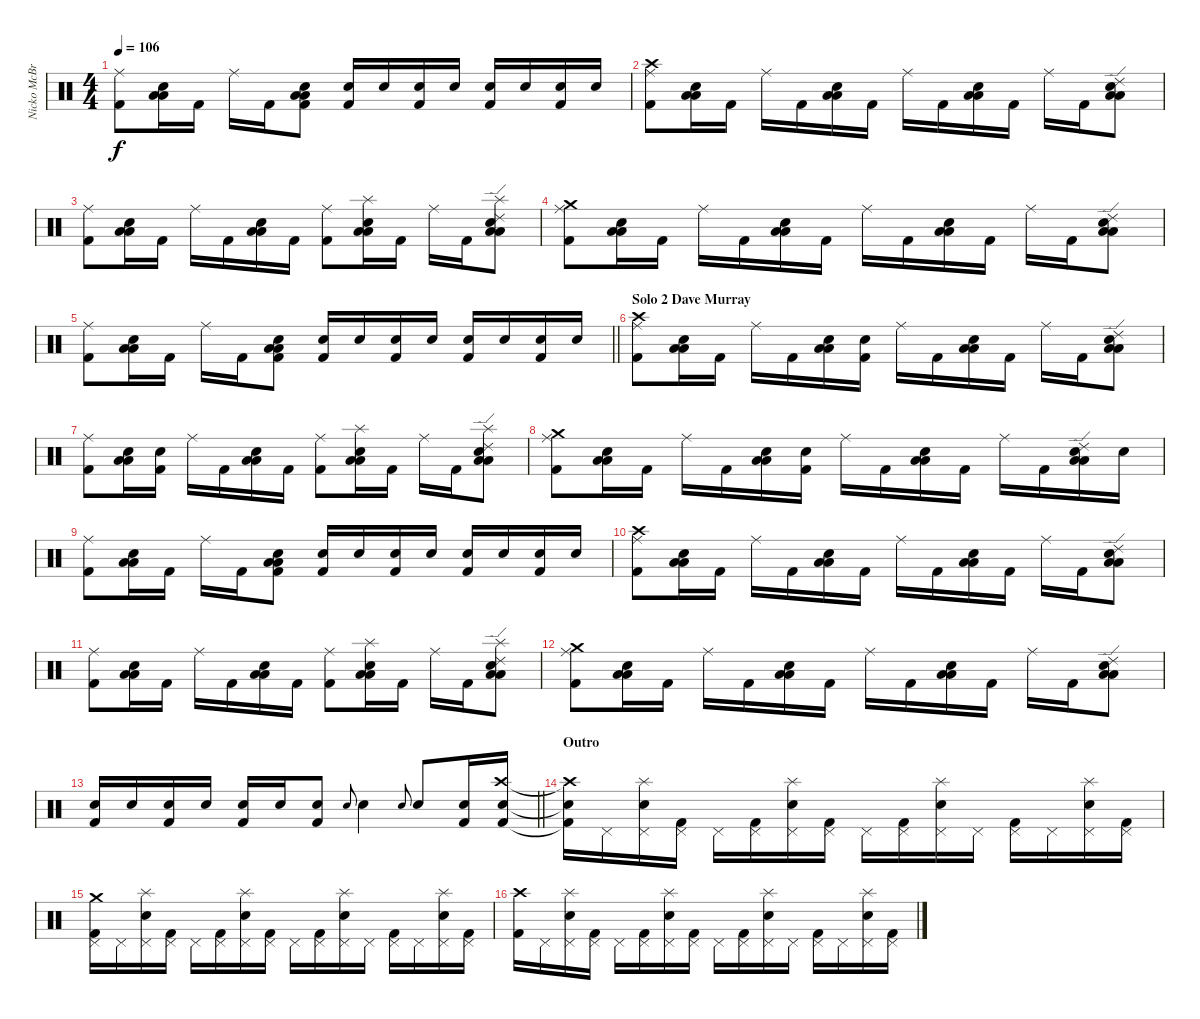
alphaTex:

\track ("Nicko McBrain" "Nicko McBr") {instrument percussion}
\staff {score}
\articulation defaults
\ts (4 4)
\tempo 106
\clef neutral
\ks c
("Ride (middle)" "Kick (hit) 2").8{dy f} ("Electric Snare (hit)" "Low Tom (hit)" "Low Floor Tom (hit)").16 "Kick (hit) 2".16 "Ride (middle)".16 "Kick (hit) 2".16 ("Electric Snare (hit)" "Low Tom (hit)" "Low Floor Tom (hit)" "Kick (hit) 2").8 ("Electric Snare (hit)" "Kick (hit) 2").16 "Electric Snare (hit)".16 ("Electric Snare (hit)" "Kick (hit) 2").16 "Electric Snare (hit)".16 ("Electric Snare (hit)" "Kick (hit) 2").16 "Electric Snare (hit)".16 ("Electric Snare (hit)" "Kick (hit) 2").16 "Electric Snare (hit)".16 |
("Ride (middle)" "Crash high (hit)" "Kick (hit) 2").8 ("Electric Snare (hit)" "Low Tom (hit)" "Low Floor Tom (hit)").16 "Kick (hit) 2".16 "Ride (middle)".16 "Kick (hit) 2".16 ("Electric Snare (hit)" "Low Tom (hit)" "Low Floor Tom (hit)").16 "Kick (hit) 2".16 "Ride (middle)".16 "Kick (hit) 2".16 ("Electric Snare (hit)" "Low Tom (hit)" "Low Floor Tom (hit)").16 "Kick (hit) 2".16 "Ride (middle)".16 "Kick (hit) 2".16 ("Ride (edge) 2" "Electric Snare (hit)" "Low Tom (hit)" "Low Floor Tom (hit)").8 |
("Ride (middle)" "Kick (hit) 2").8 ("Electric Snare (hit)" "Low Tom (hit)" "Low Floor Tom (hit)").16 "Kick (hit) 2".16 "Ride (middle)".16 "Kick (hit) 2".16 ("Electric Snare (hit)" "Low Tom (hit)" "Low Floor Tom (hit)").16 "Kick (hit) 2".16 ("Ride (middle)" "Kick (hit) 2").8 ("Electric Snare (hit)" "Low Tom (hit)" "Low Floor Tom (hit)" "Splash (hit)").16 "Kick (hit) 2".16 "Ride (middle)".16 "Kick (hit) 2".16 ("Ride (edge) 2" "Electric Snare (hit)" "Low Tom (hit)" "Low Floor Tom (hit)" "Splash (hit)").8 |
("Ride (middle)" "Crash medium (hit)" "Kick (hit) 2").8 ("Electric Snare (hit)" "Low Tom (hit)" "Low Floor Tom (hit)").16 "Kick (hit) 2".16 "Ride (middle)".16 "Kick (hit) 2".16 ("Electric Snare (hit)" "Low Tom (hit)" "Low Floor Tom (hit)").16 "Kick (hit) 2".16 "Ride (middle)".16 "Kick (hit) 2".16 ("Electric Snare (hit)" "Low Tom (hit)" "Low Floor Tom (hit)").16 "Kick (hit) 2".16 "Ride (middle)".16 "Kick (hit) 2".16 ("Ride (edge) 2" "Electric Snare (hit)" "Low Tom (hit)" "Low Floor Tom (hit)").8 |
\barLineRight lightlight
("Ride (middle)" "Kick (hit) 2").8 ("Electric Snare (hit)" "Low Tom (hit)" "Low Floor Tom (hit)").16 "Kick (hit) 2".16 "Ride (middle)".16 "Kick (hit) 2".16 ("Electric Snare (hit)" "Low Tom (hit)" "Low Floor Tom (hit)" "Kick (hit) 2").8 ("Electric Snare (hit)" "Kick (hit) 2").16 "Electric Snare (hit)".16 ("Electric Snare (hit)" "Kick (hit) 2").16 "Electric Snare (hit)".16 ("Electric Snare (hit)" "Kick (hit) 2").16 "Electric Snare (hit)".16 ("Electric Snare (hit)" "Kick (hit) 2").16 "Electric Snare (hit)".16 |
\section ("" "Solo 2 Dave Murray")
("Ride (middle)" "Crash high (hit)" "Kick (hit) 2").8 ("Electric Snare (hit)" "Low Tom (hit)" "Low Floor Tom (hit)").16 "Kick (hit) 2".16 "Ride (middle)".16 "Kick (hit) 2".16 ("Electric Snare (hit)" "Low Tom (hit)" "Low Floor Tom (hit)").16 ("Electric Snare (hit)" "Kick (hit) 2").16 "Ride (middle)".16 "Kick (hit) 2".16 ("Electric Snare (hit)" "Low Tom (hit)" "Low Floor Tom (hit)").16 "Kick (hit) 2".16 "Ride (middle)".16 "Kick (hit) 2".16 ("Ride (edge) 2" "Electric Snare (hit)" "Low Tom (hit)" "Low Floor Tom (hit)").8 |
("Ride (middle)" "Kick (hit) 2").8 ("Electric Snare (hit)" "Low Tom (hit)" "Low Floor Tom (hit)").16 ("Electric Snare (hit)" "Kick (hit) 2").16 "Ride (middle)".16 "Kick (hit) 2".16 ("Electric Snare (hit)" "Low Tom (hit)" "Low Floor Tom (hit)").16 "Kick (hit) 2".16 ("Ride (middle)" "Kick (hit) 2").8 ("Electric Snare (hit)" "Low Tom (hit)" "Low Floor Tom (hit)" "Splash (hit)").16 "Kick (hit) 2".16 "Ride (middle)".16 "Kick (hit) 2".16 ("Ride (edge) 2" "Electric Snare (hit)" "Low Tom (hit)" "Low Floor Tom (hit)" "Splash (hit)").8 |
("Ride (middle)" "Crash medium (hit)" "Kick (hit) 2").8 ("Electric Snare (hit)" "Low Tom (hit)" "Low Floor Tom (hit)").16 "Kick (hit) 2".16 "Ride (middle)".16 "Kick (hit) 2".16 ("Electric Snare (hit)" "Low Tom (hit)" "Low Floor Tom (hit)").16 ("Electric Snare (hit)" "Kick (hit) 2").16 "Ride (middle)".16 "Kick (hit) 2".16 ("Electric Snare (hit)" "Low Tom (hit)" "Low Floor Tom (hit)").16 "Kick (hit) 2".16 "Ride (middle)".16 "Kick (hit) 2".16 ("Ride (edge) 2" "Electric Snare (hit)" "Low Tom (hit)" "Low Floor Tom (hit)").16 "Electric Snare (hit)".16 |
("Ride (middle)" "Kick (hit) 2").8 ("Electric Snare (hit)" "Low Tom (hit)" "Low Floor Tom (hit)").16 "Kick (hit) 2".16 "Ride (middle)".16 "Kick (hit) 2".16 ("Electric Snare (hit)" "Low Tom (hit)" "Low Floor Tom (hit)" "Kick (hit) 2").8 ("Electric Snare (hit)" "Kick (hit) 2").16 "Electric Snare (hit)".16 ("Electric Snare (hit)" "Kick (hit) 2").16 "Electric Snare (hit)".16 ("Electric Snare (hit)" "Kick (hit) 2").16 "Electric Snare (hit)".16 ("Electric Snare (hit)" "Kick (hit) 2").16 "Electric Snare (hit)".16 |
("Ride (middle)" "Crash high (hit)" "Kick (hit) 2").8 ("Electric Snare (hit)" "Low Tom (hit)" "Low Floor Tom (hit)").16 "Kick (hit) 2".16 "Ride (middle)".16 "Kick (hit) 2".16 ("Electric Snare (hit)" "Low Tom (hit)" "Low Floor Tom (hit)").16 "Kick (hit) 2".16 "Ride (middle)".16 "Kick (hit) 2".16 ("Electric Snare (hit)" "Low Tom (hit)" "Low Floor Tom (hit)").16 "Kick (hit) 2".16 "Ride (middle)".16 "Kick (hit) 2".16 ("Ride (edge) 2" "Electric Snare (hit)" "Low Tom (hit)" "Low Floor Tom (hit)").8 |
("Ride (middle)" "Kick (hit) 2").8 ("Electric Snare (hit)" "Low Tom (hit)" "Low Floor Tom (hit)").16 "Kick (hit) 2".16 "Ride (middle)".16 "Kick (hit) 2".16 ("Electric Snare (hit)" "Low Tom (hit)" "Low Floor Tom (hit)").16 "Kick (hit) 2".16 ("Ride (middle)" "Kick (hit) 2").8 ("Electric Snare (hit)" "Low Tom (hit)" "Low Floor Tom (hit)" "Splash (hit)").16 "Kick (hit) 2".16 "Ride (middle)".16 "Kick (hit) 2".16 ("Ride (edge) 2" "Electric Snare (hit)" "Low Tom (hit)" "Low Floor Tom (hit)" "Splash (hit)").8 |
("Ride (middle)" "Crash medium (hit)" "Kick (hit) 2").8 ("Electric Snare (hit)" "Low Tom (hit)" "Low Floor Tom (hit)").16 "Kick (hit) 2".16 "Ride (middle)".16 "Kick (hit) 2".16 ("Electric Snare (hit)" "Low Tom (hit)" "Low Floor Tom (hit)").16 "Kick (hit) 2".16 "Ride (middle)".16 "Kick (hit) 2".16 ("Electric Snare (hit)" "Low Tom (hit)" "Low Floor Tom (hit)").16 "Kick (hit) 2".16 "Ride (middle)".16 "Kick (hit) 2".16 ("Ride (edge) 2" "Electric Snare (hit)" "Low Tom (hit)" "Low Floor Tom (hit)").8 |
\barLineRight lightlight
("Electric Snare (hit)" "Kick (hit) 2").16 "Electric Snare (hit)".16 ("Electric Snare (hit)" "Kick (hit) 2").16 "Electric Snare (hit)".16 ("Electric Snare (hit)" "Kick (hit) 2").16 "Electric Snare (hit)".16 ("Electric Snare (hit)" "Kick (hit) 2").8 "Electric Snare (hit)".8{gr onbeat} "Electric Snare (hit)".4 "Electric Snare (hit)".8{gr onbeat} "Electric Snare (hit)".8 ("Electric Snare (hit)" "Kick (hit) 2").16 ("Snare (hit) 2" "Crash high (hit)" "Kick (hit) 2").16 |
\section ("" "Outro")
("Snare (hit) 2"{t} "Crash high (hit)"{t} "Kick (hit) 2"{t}).16 "Pedal Hi-Hat (hit)".16 ("Pedal Hi-Hat (hit)" "Snare (hit) 2" "Splash (hit)").16 ("Pedal Hi-Hat (hit)" "Kick (hit) 2").16 "Pedal Hi-Hat (hit)".16 ("Pedal Hi-Hat (hit)" "Kick (hit) 2").16 ("Pedal Hi-Hat (hit)" "Snare (hit) 2" "Splash (hit)").16 ("Pedal Hi-Hat (hit)" "Kick (hit) 2").16 "Pedal Hi-Hat (hit)".16 ("Pedal Hi-Hat (hit)" "Kick (hit) 2").16 ("Pedal Hi-Hat (hit)" "Snare (hit) 2" "Splash (hit)").16 "Pedal Hi-Hat (hit)".16 ("Pedal Hi-Hat (hit)" "Kick (hit) 2").16 "Pedal Hi-Hat (hit)".16 ("Pedal Hi-Hat (hit)" "Snare (hit) 2" "Splash (hit)").16 ("Pedal Hi-Hat (hit)" "Kick (hit) 2").16 |
("Pedal Hi-Hat (hit)" "Crash medium (hit)" "Kick (hit) 2").16 "Pedal Hi-Hat (hit)".16 ("Pedal Hi-Hat (hit)" "Snare (hit) 2" "Splash (hit)").16 ("Pedal Hi-Hat (hit)" "Kick (hit) 2").16 "Pedal Hi-Hat (hit)".16 ("Pedal Hi-Hat (hit)" "Kick (hit) 2").16 ("Pedal Hi-Hat (hit)" "Snare (hit) 2" "Splash (hit)").16 ("Pedal Hi-Hat (hit)" "Kick (hit) 2").16 "Pedal Hi-Hat (hit)".16 ("Pedal Hi-Hat (hit)" "Kick (hit) 2").16 ("Pedal Hi-Hat (hit)" "Snare (hit) 2" "Splash (hit)").16 "Pedal Hi-Hat (hit)".16 ("Pedal Hi-Hat (hit)" "Kick (hit) 2").16 "Pedal Hi-Hat (hit)".16 ("Pedal Hi-Hat (hit)" "Snare (hit) 2" "Splash (hit)").16 ("Pedal Hi-Hat (hit)" "Kick (hit) 2").16 |
("Crash high (hit)" "Kick (hit) 2").16 "Pedal Hi-Hat (hit)".16 ("Pedal Hi-Hat (hit)" "Snare (hit) 2" "Splash (hit)").16 ("Pedal Hi-Hat (hit)" "Kick (hit) 2").16 "Pedal Hi-Hat (hit)".16 ("Pedal Hi-Hat (hit)" "Kick (hit) 2").16 ("Pedal Hi-Hat (hit)" "Snare (hit) 2" "Splash (hit)").16 ("Pedal Hi-Hat (hit)" "Kick (hit) 2").16 "Pedal Hi-Hat (hit)".16 ("Pedal Hi-Hat (hit)" "Kick (hit) 2").16 ("Pedal Hi-Hat (hit)" "Snare (hit) 2" "Splash (hit)").16 "Pedal Hi-Hat (hit)".16 ("Pedal Hi-Hat (hit)" "Kick (hit) 2").16 "Pedal Hi-Hat (hit)".16 ("Pedal Hi-Hat (hit)" "Snare (hit) 2" "Splash (hit)").16 ("Pedal Hi-Hat (hit)" "Kick (hit) 2").16
